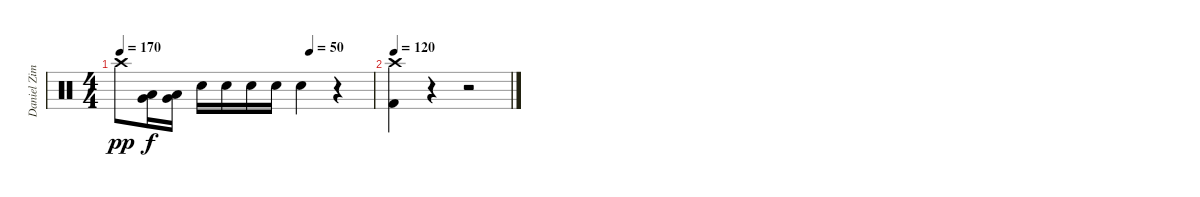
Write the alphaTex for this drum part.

\track ("Daniel Zimmermann - Drums" "Daniel Zim") {instrument percussion}
\staff {score}
\articulation defaults
\ts (4 4)
\tempo 170
\tempo (50 0.75)
\clef neutral
\ks c "Crash high (hit)".8{dy pp}
("Low Tom (hit)" "Very Low Tom (hit)").16{dy f} ("Low Tom (hit)" "Very Low Tom (hit)").16 "Electric Snare (hit)".16 "Electric Snare (hit)".16 "Electric Snare (hit)".16 "Electric Snare (hit)".16 "Electric Snare (hit)".4 r.4 |
\tempo 120
("Kick (hit) 2" "Crash high (hit)").4 r.4 r.2
